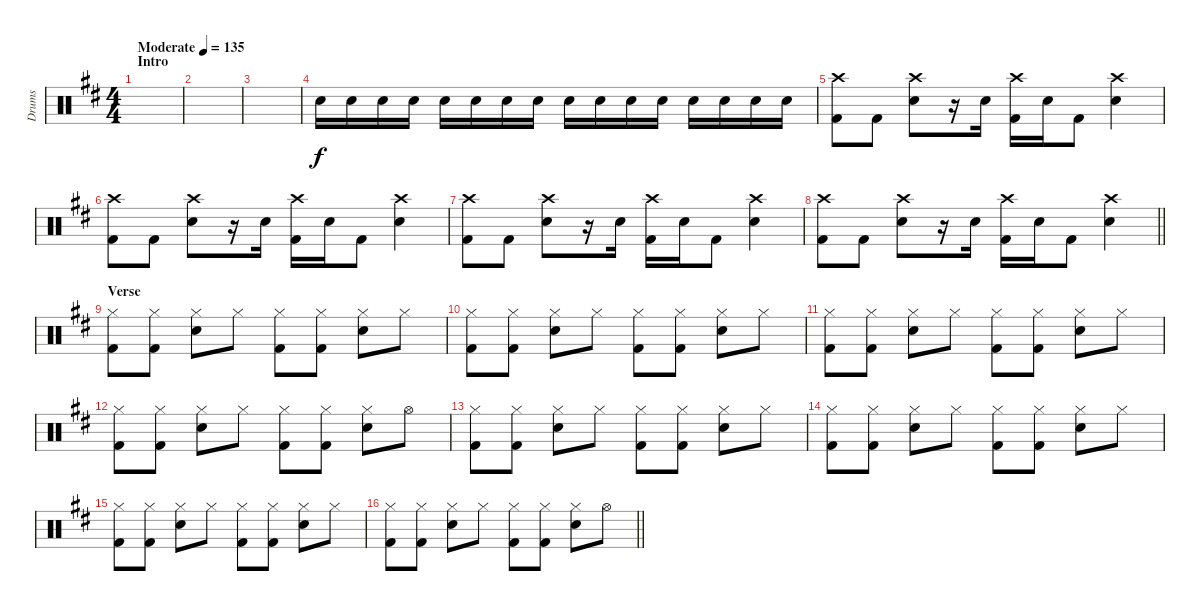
\track ("Drums" "Drums") {instrument percussion}
\staff {score}
\articulation defaults
\ts (4 4)
\section ("" "Intro")
\tempo (135 "Moderate")
\clef neutral
\ks d
|
|
|
"Snare (hit) 2".16 "Snare (hit) 2".16 "Snare (hit) 2".16 "Snare (hit) 2".16 "Snare (hit) 2".16 "Snare (hit) 2".16 "Snare (hit) 2".16 "Snare (hit) 2".16 "Snare (hit) 2".16 "Snare (hit) 2".16 "Snare (hit) 2".16 "Snare (hit) 2".16 "Snare (hit) 2".16 "Snare (hit) 2".16 "Snare (hit) 2".16 "Snare (hit) 2".16 |
("Crash high (hit)" "Kick (hit) 2").8 "Kick (hit) 2".8 ("Crash high (hit)" "Snare (hit) 2").8 r.16 "Snare (hit) 2".16 ("Crash high (hit)" "Kick (hit) 2").16 "Snare (hit) 2".16 "Kick (hit) 2".8 ("Crash high (hit)" "Snare (hit) 2").4 |
("Crash high (hit)" "Kick (hit) 2").8 "Kick (hit) 2".8 ("Crash high (hit)" "Snare (hit) 2").8 r.16 "Snare (hit) 2".16 ("Crash high (hit)" "Kick (hit) 2").16 "Snare (hit) 2".16 "Kick (hit) 2".8 ("Crash high (hit)" "Snare (hit) 2").4 |
("Crash high (hit)" "Kick (hit) 2").8 "Kick (hit) 2".8 ("Crash high (hit)" "Snare (hit) 2").8 r.16 "Snare (hit) 2".16 ("Crash high (hit)" "Kick (hit) 2").16 "Snare (hit) 2".16 "Kick (hit) 2".8 ("Crash high (hit)" "Snare (hit) 2").4 |
\barLineRight lightlight
("Crash high (hit)" "Kick (hit) 2").8 "Kick (hit) 2".8 ("Crash high (hit)" "Snare (hit) 2").8 r.16 "Snare (hit) 2".16 ("Crash high (hit)" "Kick (hit) 2").16 "Snare (hit) 2".16 "Kick (hit) 2".8 ("Crash high (hit)" "Snare (hit) 2").4 |
\section ("" "Verse")
("Hi-Hat (closed)" "Kick (hit) 2").8 ("Hi-Hat (closed)" "Kick (hit) 2").8 ("Hi-Hat (closed)" "Snare (hit) 2").8 "Hi-Hat (closed)".8 ("Hi-Hat (closed)" "Kick (hit) 2").8 ("Hi-Hat (closed)" "Kick (hit) 2").8 ("Hi-Hat (closed)" "Snare (hit) 2").8 "Hi-Hat (closed)".8 |
("Hi-Hat (closed)" "Kick (hit) 2").8 ("Hi-Hat (closed)" "Kick (hit) 2").8 ("Hi-Hat (closed)" "Snare (hit) 2").8 "Hi-Hat (closed)".8 ("Hi-Hat (closed)" "Kick (hit) 2").8 ("Hi-Hat (closed)" "Kick (hit) 2").8 ("Hi-Hat (closed)" "Snare (hit) 2").8 "Hi-Hat (closed)".8 |
("Hi-Hat (closed)" "Kick (hit) 2").8 ("Hi-Hat (closed)" "Kick (hit) 2").8 ("Hi-Hat (closed)" "Snare (hit) 2").8 "Hi-Hat (closed)".8 ("Hi-Hat (closed)" "Kick (hit) 2").8 ("Hi-Hat (closed)" "Kick (hit) 2").8 ("Hi-Hat (closed)" "Snare (hit) 2").8 "Hi-Hat (closed)".8 |
("Hi-Hat (closed)" "Kick (hit) 2").8 ("Hi-Hat (closed)" "Kick (hit) 2").8 ("Hi-Hat (closed)" "Snare (hit) 2").8 "Hi-Hat (closed)".8 ("Hi-Hat (closed)" "Kick (hit) 2").8 ("Hi-Hat (closed)" "Kick (hit) 2").8 ("Hi-Hat (closed)" "Snare (hit) 2").8 "Hi-Hat (open)".8 |
("Hi-Hat (closed)" "Kick (hit) 2").8 ("Hi-Hat (closed)" "Kick (hit) 2").8 ("Hi-Hat (closed)" "Snare (hit) 2").8 "Hi-Hat (closed)".8 ("Hi-Hat (closed)" "Kick (hit) 2").8 ("Hi-Hat (closed)" "Kick (hit) 2").8 ("Hi-Hat (closed)" "Snare (hit) 2").8 "Hi-Hat (closed)".8 |
("Hi-Hat (closed)" "Kick (hit) 2").8 ("Hi-Hat (closed)" "Kick (hit) 2").8 ("Hi-Hat (closed)" "Snare (hit) 2").8 "Hi-Hat (closed)".8 ("Hi-Hat (closed)" "Kick (hit) 2").8 ("Hi-Hat (closed)" "Kick (hit) 2").8 ("Hi-Hat (closed)" "Snare (hit) 2").8 "Hi-Hat (closed)".8 |
("Hi-Hat (closed)" "Kick (hit) 2").8 ("Hi-Hat (closed)" "Kick (hit) 2").8 ("Hi-Hat (closed)" "Snare (hit) 2").8 "Hi-Hat (closed)".8 ("Hi-Hat (closed)" "Kick (hit) 2").8 ("Hi-Hat (closed)" "Kick (hit) 2").8 ("Hi-Hat (closed)" "Snare (hit) 2").8 "Hi-Hat (closed)".8 |
\barLineRight lightlight
("Hi-Hat (closed)" "Kick (hit) 2").8 ("Hi-Hat (closed)" "Kick (hit) 2").8 ("Hi-Hat (closed)" "Snare (hit) 2").8 "Hi-Hat (closed)".8 ("Hi-Hat (closed)" "Kick (hit) 2").8 ("Hi-Hat (closed)" "Kick (hit) 2").8 ("Hi-Hat (closed)" "Snare (hit) 2").8 "Hi-Hat (open)".8
